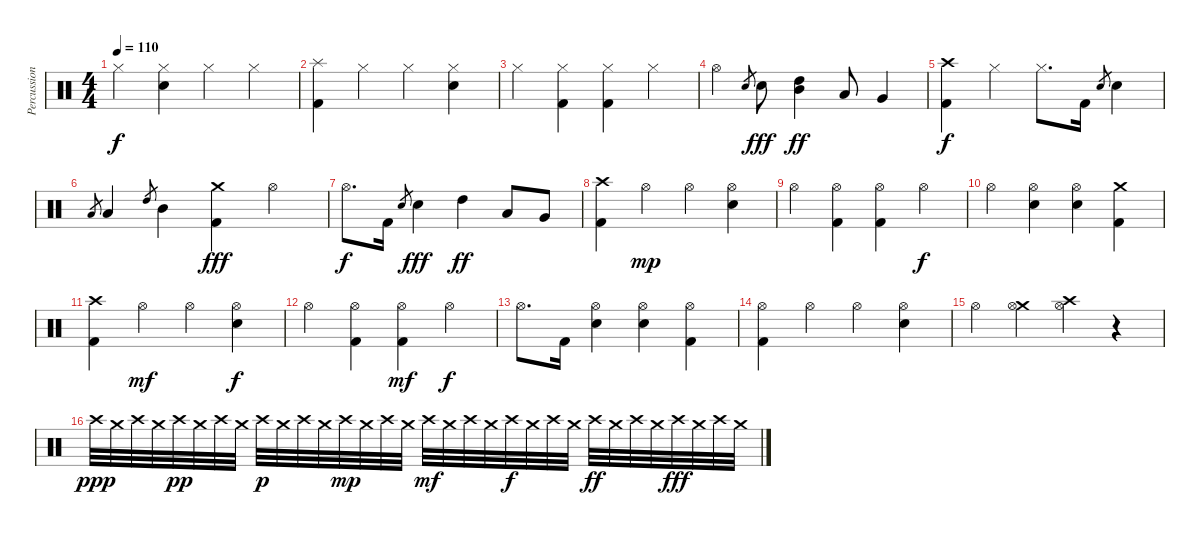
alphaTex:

\track ("Percussion" "Percussion") {instrument percussion}
\staff {score}
\articulation defaults
\ts (4 4)
\tempo 110
\clef neutral
\ks c "Hi-Hat (closed)".4{dy f}
("Hi-Hat (closed)" "Electric Snare (hit)").4 "Hi-Hat (closed)".4 "Hi-Hat (closed)".4 |
("Splash (hit)" "Kick (hit) 2").4 "Hi-Hat (closed)".4 "Hi-Hat (closed)".4 ("Hi-Hat (closed)" "Electric Snare (hit)").4 |
"Hi-Hat (closed)".4 ("Hi-Hat (closed)" "Kick (hit) 2").4 ("Hi-Hat (closed)" "Kick (hit) 2").4 "Hi-Hat (closed)".4 |
"Hi-Hat (open)".4 "Electric Snare (hit)".8{gr} "Electric Snare (hit)".8{dy fff} ("Mid Tom (hit)" "High Tom (hit)").4{dy ff} "Low Tom (hit)".8 "Very Low Tom (hit)".4 |
("Crash high (hit)" "Kick (hit) 2").4{dy f} "Hi-Hat (closed)".4 "Hi-Hat (closed)".8{d} "Kick (hit) 2".16 "Electric Snare (hit)".8{gr} "Electric Snare (hit)".4 |
"Low Floor Tom (hit)".8{gr} "Low Floor Tom (hit)".4 "High Tom (hit)".8{gr} "Mid Tom (hit)".4 ("Crash medium (hit)" "Kick (hit) 2").4{dy fff} "Hi-Hat (open)".4 |
"Hi-Hat (open)".8{d dy f} "Kick (hit) 2".16 "Electric Snare (hit)".8{gr} "Electric Snare (hit)".4{dy fff} "High Tom (hit)".4{dy ff} "Low Tom (hit)".8 "Very Low Tom (hit)".8 |
("Crash high (hit)" "Kick (hit) 2").4 "Hi-Hat (open)".4{dy mp} "Hi-Hat (open)".4 ("Hi-Hat (open)" "Electric Snare (hit)").4 |
"Hi-Hat (open)".4 ("Hi-Hat (open)" "Kick (hit) 2").4 ("Hi-Hat (open)" "Kick (hit) 2").4 "Hi-Hat (open)".4{dy f} |
"Hi-Hat (open)".4 ("Hi-Hat (open)" "Electric Snare (hit)").4 ("Hi-Hat (open)" "Electric Snare (hit)").4 ("Crash medium (hit)" "Kick (hit) 2").4 |
("Crash high (hit)" "Kick (hit) 2").4 "Hi-Hat (open)".4{dy mf} "Hi-Hat (open)".4 ("Hi-Hat (open)" "Electric Snare (hit)").4{dy f} |
"Hi-Hat (open)".4 ("Hi-Hat (open)" "Kick (hit) 2").4 ("Hi-Hat (open)" "Kick (hit) 2").4{dy mf} "Hi-Hat (open)".4{dy f} |
"Hi-Hat (open)".8{d} "Kick (hit) 2".16 ("Hi-Hat (open)" "Electric Snare (hit)").4 ("Hi-Hat (open)" "Electric Snare (hit)").4 ("Hi-Hat (open)" "Kick (hit) 2").4 |
("Hi-Hat (open)" "Kick (hit) 2").4 "Hi-Hat (open)".4 "Hi-Hat (open)".4 ("Hi-Hat (open)" "Electric Snare (hit)").4 |
"Hi-Hat (open)".4 ("Crash medium (hit)" "Hi-Hat (open)").4 ("Crash high (hit)" "Hi-Hat (open)").4 r.4 |
"Crash high (hit)".32{dy ppp} "Crash medium (hit)".32 "Crash high (hit)".32 "Crash medium (hit)".32 "Crash high (hit)".32{dy pp} "Crash medium (hit)".32 "Crash high (hit)".32 "Crash medium (hit)".32 "Crash high (hit)".32{dy p} "Crash medium (hit)".32 "Crash high (hit)".32 "Crash medium (hit)".32 "Crash high (hit)".32{dy mp} "Crash medium (hit)".32 "Crash high (hit)".32 "Crash medium (hit)".32 "Crash high (hit)".32{dy mf} "Crash medium (hit)".32 "Crash high (hit)".32 "Crash medium (hit)".32 "Crash high (hit)".32{dy f} "Crash medium (hit)".32 "Crash high (hit)".32 "Crash medium (hit)".32 "Crash high (hit)".32{dy ff} "Crash medium (hit)".32 "Crash high (hit)".32 "Crash medium (hit)".32 "Crash high (hit)".32{dy fff} "Crash medium (hit)".32 "Crash high (hit)".32 "Crash medium (hit)".32
